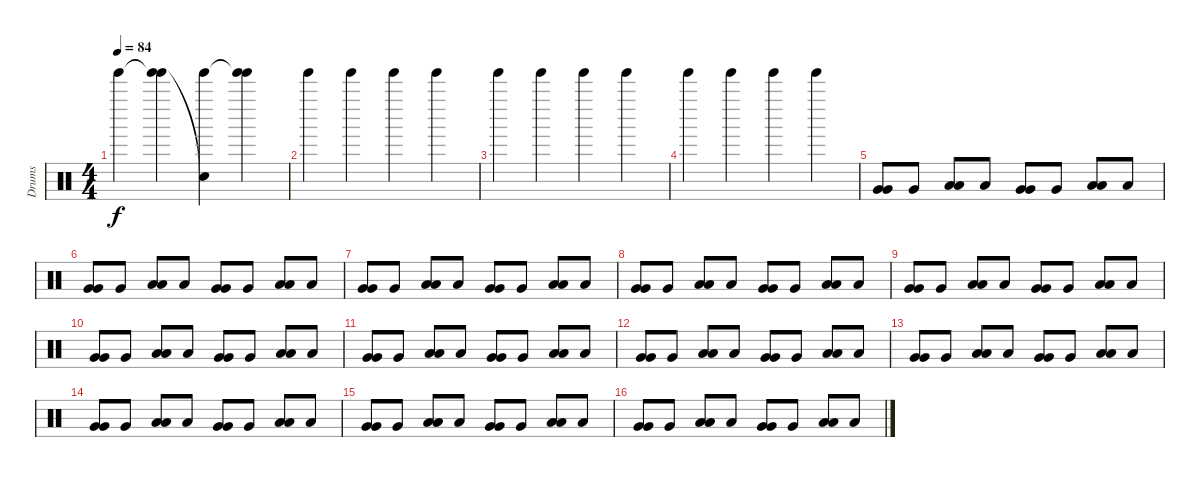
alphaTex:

\track ("Drums" "Drums") {instrument percussion}
\staff {score}
\articulation defaults
\ts (4 4)
\tempo 84
\clef neutral
\ks c "Tinkle Bell (hit)".4{dy f volume 2 balance 0}
("Tinkle Bell (hit)"{t} "Tinkle Bell (hit)").4 ("Tinkle Bell (hit)" "Snare (hit)"{t}).4 ("Tinkle Bell (hit)"{t} "Tinkle Bell (hit)").4 |
"Tinkle Bell (hit)".4 "Tinkle Bell (hit)".4 "Tinkle Bell (hit)".4 "Tinkle Bell (hit)".4 |
"Tinkle Bell (hit)".4 "Tinkle Bell (hit)".4 "Tinkle Bell (hit)".4 "Tinkle Bell (hit)".4 |
"Tinkle Bell (hit)".4 "Tinkle Bell (hit)".4 "Tinkle Bell (hit)".4 "Tinkle Bell (hit)".4 |
("Very Low Tom (hit)" "Very Low Tom (hit)").8{volume 16 balance 8} "Very Low Tom (hit)".8 ("Low Tom (hit)" "Low Tom (hit)").8 "Low Tom (hit)".8 ("Very Low Tom (hit)" "Very Low Tom (hit)").8 "Very Low Tom (hit)".8 ("Low Tom (hit)" "Low Tom (hit)").8 "Low Tom (hit)".8 |
("Very Low Tom (hit)" "Very Low Tom (hit)").8 "Very Low Tom (hit)".8 ("Low Tom (hit)" "Low Tom (hit)").8 "Low Tom (hit)".8 ("Very Low Tom (hit)" "Very Low Tom (hit)").8 "Very Low Tom (hit)".8 ("Low Tom (hit)" "Low Tom (hit)").8 "Low Tom (hit)".8 |
("Very Low Tom (hit)" "Very Low Tom (hit)").8 "Very Low Tom (hit)".8 ("Low Tom (hit)" "Low Tom (hit)").8 "Low Tom (hit)".8 ("Very Low Tom (hit)" "Very Low Tom (hit)").8 "Very Low Tom (hit)".8 ("Low Tom (hit)" "Low Tom (hit)").8 "Low Tom (hit)".8 |
("Very Low Tom (hit)" "Very Low Tom (hit)").8 "Very Low Tom (hit)".8 ("Low Tom (hit)" "Low Tom (hit)").8 "Low Tom (hit)".8 ("Very Low Tom (hit)" "Very Low Tom (hit)").8 "Very Low Tom (hit)".8 ("Low Tom (hit)" "Low Tom (hit)").8 "Low Tom (hit)".8 |
("Very Low Tom (hit)" "Very Low Tom (hit)").8 "Very Low Tom (hit)".8 ("Low Tom (hit)" "Low Tom (hit)").8 "Low Tom (hit)".8 ("Very Low Tom (hit)" "Very Low Tom (hit)").8 "Very Low Tom (hit)".8 ("Low Tom (hit)" "Low Tom (hit)").8 "Low Tom (hit)".8 |
("Very Low Tom (hit)" "Very Low Tom (hit)").8 "Very Low Tom (hit)".8 ("Low Tom (hit)" "Low Tom (hit)").8 "Low Tom (hit)".8 ("Very Low Tom (hit)" "Very Low Tom (hit)").8 "Very Low Tom (hit)".8 ("Low Tom (hit)" "Low Tom (hit)").8 "Low Tom (hit)".8 |
("Very Low Tom (hit)" "Very Low Tom (hit)").8 "Very Low Tom (hit)".8 ("Low Tom (hit)" "Low Tom (hit)").8 "Low Tom (hit)".8 ("Very Low Tom (hit)" "Very Low Tom (hit)").8 "Very Low Tom (hit)".8 ("Low Tom (hit)" "Low Tom (hit)").8 "Low Tom (hit)".8 |
("Very Low Tom (hit)" "Very Low Tom (hit)").8 "Very Low Tom (hit)".8 ("Low Tom (hit)" "Low Tom (hit)").8 "Low Tom (hit)".8 ("Very Low Tom (hit)" "Very Low Tom (hit)").8 "Very Low Tom (hit)".8 ("Low Tom (hit)" "Low Tom (hit)").8 "Low Tom (hit)".8 |
("Very Low Tom (hit)" "Very Low Tom (hit)").8 "Very Low Tom (hit)".8 ("Low Tom (hit)" "Low Tom (hit)").8 "Low Tom (hit)".8 ("Very Low Tom (hit)" "Very Low Tom (hit)").8 "Very Low Tom (hit)".8 ("Low Tom (hit)" "Low Tom (hit)").8 "Low Tom (hit)".8 |
("Very Low Tom (hit)" "Very Low Tom (hit)").8 "Very Low Tom (hit)".8 ("Low Tom (hit)" "Low Tom (hit)").8 "Low Tom (hit)".8 ("Very Low Tom (hit)" "Very Low Tom (hit)").8 "Very Low Tom (hit)".8 ("Low Tom (hit)" "Low Tom (hit)").8 "Low Tom (hit)".8 |
("Very Low Tom (hit)" "Very Low Tom (hit)").8 "Very Low Tom (hit)".8 ("Low Tom (hit)" "Low Tom (hit)").8 "Low Tom (hit)".8 ("Very Low Tom (hit)" "Very Low Tom (hit)").8 "Very Low Tom (hit)".8 ("Low Tom (hit)" "Low Tom (hit)").8 "Low Tom (hit)".8 |
("Very Low Tom (hit)" "Very Low Tom (hit)").8 "Very Low Tom (hit)".8 ("Low Tom (hit)" "Low Tom (hit)").8 "Low Tom (hit)".8 ("Very Low Tom (hit)" "Very Low Tom (hit)").8 "Very Low Tom (hit)".8 ("Low Tom (hit)" "Low Tom (hit)").8 "Low Tom (hit)".8
